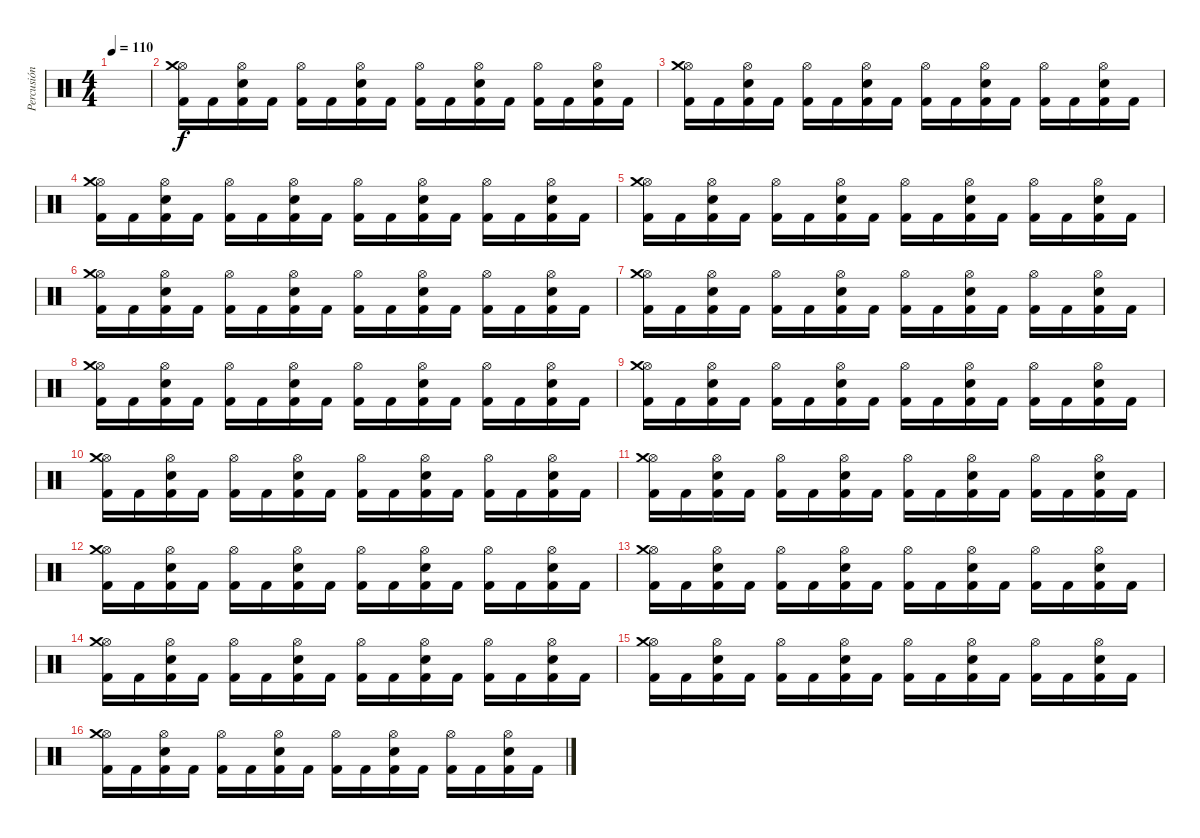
\track ("Percusión" "Percusión") {instrument percussion}
\staff {score}
\articulation defaults
\ts (4 4)
\tempo 110
\clef neutral
\ks c
|
("Hi-Hat (open)" "Kick (hit) 2" "Crash medium (hit)").16 "Kick (hit) 2".16 ("Hi-Hat (open)" "Electric Snare (hit)" "Kick (hit) 2").16 "Kick (hit) 2".16 ("Hi-Hat (open)" "Kick (hit) 2").16 "Kick (hit) 2".16 ("Hi-Hat (open)" "Electric Snare (hit)" "Kick (hit) 2").16 "Kick (hit) 2".16 ("Hi-Hat (open)" "Kick (hit) 2").16 "Kick (hit) 2".16 ("Hi-Hat (open)" "Electric Snare (hit)" "Kick (hit) 2").16 "Kick (hit) 2".16 ("Hi-Hat (open)" "Kick (hit) 2").16 "Kick (hit) 2".16 ("Hi-Hat (open)" "Electric Snare (hit)" "Kick (hit) 2").16 "Kick (hit) 2".16 |
("Hi-Hat (open)" "Kick (hit) 2" "Crash medium (hit)").16 "Kick (hit) 2".16 ("Hi-Hat (open)" "Electric Snare (hit)" "Kick (hit) 2").16 "Kick (hit) 2".16 ("Hi-Hat (open)" "Kick (hit) 2").16 "Kick (hit) 2".16 ("Hi-Hat (open)" "Electric Snare (hit)" "Kick (hit) 2").16 "Kick (hit) 2".16 ("Hi-Hat (open)" "Kick (hit) 2").16 "Kick (hit) 2".16 ("Hi-Hat (open)" "Electric Snare (hit)" "Kick (hit) 2").16 "Kick (hit) 2".16 ("Hi-Hat (open)" "Kick (hit) 2").16 "Kick (hit) 2".16 ("Hi-Hat (open)" "Electric Snare (hit)" "Kick (hit) 2").16 "Kick (hit) 2".16 |
("Hi-Hat (open)" "Kick (hit) 2" "Crash medium (hit)").16 "Kick (hit) 2".16 ("Hi-Hat (open)" "Electric Snare (hit)" "Kick (hit) 2").16 "Kick (hit) 2".16 ("Hi-Hat (open)" "Kick (hit) 2").16 "Kick (hit) 2".16 ("Hi-Hat (open)" "Electric Snare (hit)" "Kick (hit) 2").16 "Kick (hit) 2".16 ("Hi-Hat (open)" "Kick (hit) 2").16 "Kick (hit) 2".16 ("Hi-Hat (open)" "Electric Snare (hit)" "Kick (hit) 2").16 "Kick (hit) 2".16 ("Hi-Hat (open)" "Kick (hit) 2").16 "Kick (hit) 2".16 ("Hi-Hat (open)" "Electric Snare (hit)" "Kick (hit) 2").16 "Kick (hit) 2".16 |
("Hi-Hat (open)" "Kick (hit) 2" "Crash medium (hit)").16 "Kick (hit) 2".16 ("Hi-Hat (open)" "Electric Snare (hit)" "Kick (hit) 2").16 "Kick (hit) 2".16 ("Hi-Hat (open)" "Kick (hit) 2").16 "Kick (hit) 2".16 ("Hi-Hat (open)" "Electric Snare (hit)" "Kick (hit) 2").16 "Kick (hit) 2".16 ("Hi-Hat (open)" "Kick (hit) 2").16 "Kick (hit) 2".16 ("Hi-Hat (open)" "Electric Snare (hit)" "Kick (hit) 2").16 "Kick (hit) 2".16 ("Hi-Hat (open)" "Kick (hit) 2").16 "Kick (hit) 2".16 ("Hi-Hat (open)" "Electric Snare (hit)" "Kick (hit) 2").16 "Kick (hit) 2".16 |
("Hi-Hat (open)" "Kick (hit) 2" "Crash medium (hit)").16 "Kick (hit) 2".16 ("Hi-Hat (open)" "Electric Snare (hit)" "Kick (hit) 2").16 "Kick (hit) 2".16 ("Hi-Hat (open)" "Kick (hit) 2").16 "Kick (hit) 2".16 ("Hi-Hat (open)" "Electric Snare (hit)" "Kick (hit) 2").16 "Kick (hit) 2".16 ("Hi-Hat (open)" "Kick (hit) 2").16 "Kick (hit) 2".16 ("Hi-Hat (open)" "Electric Snare (hit)" "Kick (hit) 2").16 "Kick (hit) 2".16 ("Hi-Hat (open)" "Kick (hit) 2").16 "Kick (hit) 2".16 ("Hi-Hat (open)" "Electric Snare (hit)" "Kick (hit) 2").16 "Kick (hit) 2".16 |
("Hi-Hat (open)" "Kick (hit) 2" "Crash medium (hit)").16 "Kick (hit) 2".16 ("Hi-Hat (open)" "Electric Snare (hit)" "Kick (hit) 2").16 "Kick (hit) 2".16 ("Hi-Hat (open)" "Kick (hit) 2").16 "Kick (hit) 2".16 ("Hi-Hat (open)" "Electric Snare (hit)" "Kick (hit) 2").16 "Kick (hit) 2".16 ("Hi-Hat (open)" "Kick (hit) 2").16 "Kick (hit) 2".16 ("Hi-Hat (open)" "Electric Snare (hit)" "Kick (hit) 2").16 "Kick (hit) 2".16 ("Hi-Hat (open)" "Kick (hit) 2").16 "Kick (hit) 2".16 ("Hi-Hat (open)" "Electric Snare (hit)" "Kick (hit) 2").16 "Kick (hit) 2".16 |
("Hi-Hat (open)" "Kick (hit) 2" "Crash medium (hit)").16 "Kick (hit) 2".16 ("Hi-Hat (open)" "Electric Snare (hit)" "Kick (hit) 2").16 "Kick (hit) 2".16 ("Hi-Hat (open)" "Kick (hit) 2").16 "Kick (hit) 2".16 ("Hi-Hat (open)" "Electric Snare (hit)" "Kick (hit) 2").16 "Kick (hit) 2".16 ("Hi-Hat (open)" "Kick (hit) 2").16 "Kick (hit) 2".16 ("Hi-Hat (open)" "Electric Snare (hit)" "Kick (hit) 2").16 "Kick (hit) 2".16 ("Hi-Hat (open)" "Kick (hit) 2").16 "Kick (hit) 2".16 ("Hi-Hat (open)" "Electric Snare (hit)" "Kick (hit) 2").16 "Kick (hit) 2".16 |
("Hi-Hat (open)" "Kick (hit) 2" "Crash medium (hit)").16 "Kick (hit) 2".16 ("Hi-Hat (open)" "Electric Snare (hit)" "Kick (hit) 2").16 "Kick (hit) 2".16 ("Hi-Hat (open)" "Kick (hit) 2").16 "Kick (hit) 2".16 ("Hi-Hat (open)" "Electric Snare (hit)" "Kick (hit) 2").16 "Kick (hit) 2".16 ("Hi-Hat (open)" "Kick (hit) 2").16 "Kick (hit) 2".16 ("Hi-Hat (open)" "Electric Snare (hit)" "Kick (hit) 2").16 "Kick (hit) 2".16 ("Hi-Hat (open)" "Kick (hit) 2").16 "Kick (hit) 2".16 ("Hi-Hat (open)" "Electric Snare (hit)" "Kick (hit) 2").16 "Kick (hit) 2".16 |
("Hi-Hat (open)" "Kick (hit) 2" "Crash medium (hit)").16 "Kick (hit) 2".16 ("Hi-Hat (open)" "Electric Snare (hit)" "Kick (hit) 2").16 "Kick (hit) 2".16 ("Hi-Hat (open)" "Kick (hit) 2").16 "Kick (hit) 2".16 ("Hi-Hat (open)" "Electric Snare (hit)" "Kick (hit) 2").16 "Kick (hit) 2".16 ("Hi-Hat (open)" "Kick (hit) 2").16 "Kick (hit) 2".16 ("Hi-Hat (open)" "Electric Snare (hit)" "Kick (hit) 2").16 "Kick (hit) 2".16 ("Hi-Hat (open)" "Kick (hit) 2").16 "Kick (hit) 2".16 ("Hi-Hat (open)" "Electric Snare (hit)" "Kick (hit) 2").16 "Kick (hit) 2".16 |
("Hi-Hat (open)" "Kick (hit) 2" "Crash medium (hit)").16 "Kick (hit) 2".16 ("Hi-Hat (open)" "Electric Snare (hit)" "Kick (hit) 2").16 "Kick (hit) 2".16 ("Hi-Hat (open)" "Kick (hit) 2").16 "Kick (hit) 2".16 ("Hi-Hat (open)" "Electric Snare (hit)" "Kick (hit) 2").16 "Kick (hit) 2".16 ("Hi-Hat (open)" "Kick (hit) 2").16 "Kick (hit) 2".16 ("Hi-Hat (open)" "Electric Snare (hit)" "Kick (hit) 2").16 "Kick (hit) 2".16 ("Hi-Hat (open)" "Kick (hit) 2").16 "Kick (hit) 2".16 ("Hi-Hat (open)" "Electric Snare (hit)" "Kick (hit) 2").16 "Kick (hit) 2".16 |
("Hi-Hat (open)" "Kick (hit) 2" "Crash medium (hit)").16 "Kick (hit) 2".16 ("Hi-Hat (open)" "Electric Snare (hit)" "Kick (hit) 2").16 "Kick (hit) 2".16 ("Hi-Hat (open)" "Kick (hit) 2").16 "Kick (hit) 2".16 ("Hi-Hat (open)" "Electric Snare (hit)" "Kick (hit) 2").16 "Kick (hit) 2".16 ("Hi-Hat (open)" "Kick (hit) 2").16 "Kick (hit) 2".16 ("Hi-Hat (open)" "Electric Snare (hit)" "Kick (hit) 2").16 "Kick (hit) 2".16 ("Hi-Hat (open)" "Kick (hit) 2").16 "Kick (hit) 2".16 ("Hi-Hat (open)" "Electric Snare (hit)" "Kick (hit) 2").16 "Kick (hit) 2".16 |
("Hi-Hat (open)" "Kick (hit) 2" "Crash medium (hit)").16 "Kick (hit) 2".16 ("Hi-Hat (open)" "Electric Snare (hit)" "Kick (hit) 2").16 "Kick (hit) 2".16 ("Hi-Hat (open)" "Kick (hit) 2").16 "Kick (hit) 2".16 ("Hi-Hat (open)" "Electric Snare (hit)" "Kick (hit) 2").16 "Kick (hit) 2".16 ("Hi-Hat (open)" "Kick (hit) 2").16 "Kick (hit) 2".16 ("Hi-Hat (open)" "Electric Snare (hit)" "Kick (hit) 2").16 "Kick (hit) 2".16 ("Hi-Hat (open)" "Kick (hit) 2").16 "Kick (hit) 2".16 ("Hi-Hat (open)" "Electric Snare (hit)" "Kick (hit) 2").16 "Kick (hit) 2".16 |
("Hi-Hat (open)" "Kick (hit) 2" "Crash medium (hit)").16 "Kick (hit) 2".16 ("Hi-Hat (open)" "Electric Snare (hit)" "Kick (hit) 2").16 "Kick (hit) 2".16 ("Hi-Hat (open)" "Kick (hit) 2").16 "Kick (hit) 2".16 ("Hi-Hat (open)" "Electric Snare (hit)" "Kick (hit) 2").16 "Kick (hit) 2".16 ("Hi-Hat (open)" "Kick (hit) 2").16 "Kick (hit) 2".16 ("Hi-Hat (open)" "Electric Snare (hit)" "Kick (hit) 2").16 "Kick (hit) 2".16 ("Hi-Hat (open)" "Kick (hit) 2").16 "Kick (hit) 2".16 ("Hi-Hat (open)" "Electric Snare (hit)" "Kick (hit) 2").16 "Kick (hit) 2".16 |
("Hi-Hat (open)" "Kick (hit) 2" "Crash medium (hit)").16 "Kick (hit) 2".16 ("Hi-Hat (open)" "Electric Snare (hit)" "Kick (hit) 2").16 "Kick (hit) 2".16 ("Hi-Hat (open)" "Kick (hit) 2").16 "Kick (hit) 2".16 ("Hi-Hat (open)" "Electric Snare (hit)" "Kick (hit) 2").16 "Kick (hit) 2".16 ("Hi-Hat (open)" "Kick (hit) 2").16 "Kick (hit) 2".16 ("Hi-Hat (open)" "Electric Snare (hit)" "Kick (hit) 2").16 "Kick (hit) 2".16 ("Hi-Hat (open)" "Kick (hit) 2").16 "Kick (hit) 2".16 ("Hi-Hat (open)" "Electric Snare (hit)" "Kick (hit) 2").16 "Kick (hit) 2".16 |
("Hi-Hat (open)" "Kick (hit) 2" "Crash medium (hit)").16 "Kick (hit) 2".16 ("Hi-Hat (open)" "Electric Snare (hit)" "Kick (hit) 2").16 "Kick (hit) 2".16 ("Hi-Hat (open)" "Kick (hit) 2").16 "Kick (hit) 2".16 ("Hi-Hat (open)" "Electric Snare (hit)" "Kick (hit) 2").16 "Kick (hit) 2".16 ("Hi-Hat (open)" "Kick (hit) 2").16 "Kick (hit) 2".16 ("Hi-Hat (open)" "Electric Snare (hit)" "Kick (hit) 2").16 "Kick (hit) 2".16 ("Hi-Hat (open)" "Kick (hit) 2").16 "Kick (hit) 2".16 ("Hi-Hat (open)" "Electric Snare (hit)" "Kick (hit) 2").16 "Kick (hit) 2".16
